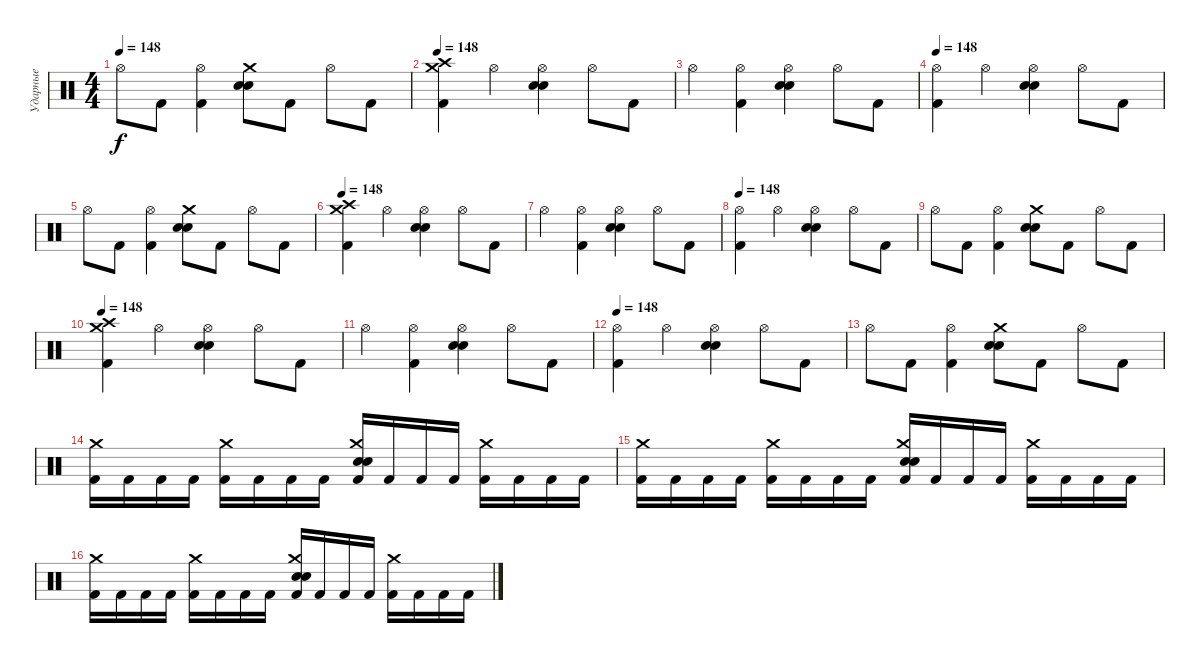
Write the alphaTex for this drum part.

\track ("Ударные" "Ударные") {instrument percussion}
\staff {score}
\articulation defaults
\ts (4 4)
\tempo 148
\clef neutral
\ks c "Hi-Hat (open)".8{dy f} "Kick (hit) 2".8
("Hi-Hat (open)" "Kick (hit) 2").4 ("Crash medium (hit)" "Snare (hit) 2" "Electric Snare (hit)").8 "Kick (hit) 2".8 "Hi-Hat (open)".8 "Kick (hit) 2".8 |
\tempo 148
("Crash high (hit)" "Crash medium (hit)" "Kick (hit) 2").4 "Hi-Hat (open)".4 ("Hi-Hat (open)" "Snare (hit) 2" "Electric Snare (hit)").4 "Hi-Hat (open)".8 "Kick (hit) 2".8 |
"Hi-Hat (open)".4 ("Hi-Hat (open)" "Kick (hit) 2").4 ("Hi-Hat (open)" "Snare (hit) 2" "Electric Snare (hit)").4 "Hi-Hat (open)".8 "Kick (hit) 2".8 |
\tempo 148
("Hi-Hat (open)" "Kick (hit) 2").4 "Hi-Hat (open)".4 ("Hi-Hat (open)" "Snare (hit) 2" "Electric Snare (hit)").4 "Hi-Hat (open)".8 "Kick (hit) 2".8 |
"Hi-Hat (open)".8 "Kick (hit) 2".8 ("Hi-Hat (open)" "Kick (hit) 2").4 ("Crash medium (hit)" "Snare (hit) 2" "Electric Snare (hit)").8 "Kick (hit) 2".8 "Hi-Hat (open)".8 "Kick (hit) 2".8 |
\tempo 148
("Crash high (hit)" "Crash medium (hit)" "Kick (hit) 2").4 "Hi-Hat (open)".4 ("Hi-Hat (open)" "Snare (hit) 2" "Electric Snare (hit)").4 "Hi-Hat (open)".8 "Kick (hit) 2".8 |
"Hi-Hat (open)".4 ("Hi-Hat (open)" "Kick (hit) 2").4 ("Hi-Hat (open)" "Snare (hit) 2" "Electric Snare (hit)").4 "Hi-Hat (open)".8 "Kick (hit) 2".8 |
\tempo 148
("Hi-Hat (open)" "Kick (hit) 2").4 "Hi-Hat (open)".4 ("Hi-Hat (open)" "Snare (hit) 2" "Electric Snare (hit)").4 "Hi-Hat (open)".8 "Kick (hit) 2".8 |
"Hi-Hat (open)".8 "Kick (hit) 2".8 ("Hi-Hat (open)" "Kick (hit) 2").4 ("Crash medium (hit)" "Snare (hit) 2" "Electric Snare (hit)").8 "Kick (hit) 2".8 "Hi-Hat (open)".8 "Kick (hit) 2".8 |
\tempo 148
("Crash high (hit)" "Crash medium (hit)" "Kick (hit) 2").4 "Hi-Hat (open)".4 ("Hi-Hat (open)" "Snare (hit) 2" "Electric Snare (hit)").4 "Hi-Hat (open)".8 "Kick (hit) 2".8 |
"Hi-Hat (open)".4 ("Hi-Hat (open)" "Kick (hit) 2").4 ("Hi-Hat (open)" "Snare (hit) 2" "Electric Snare (hit)").4 "Hi-Hat (open)".8 "Kick (hit) 2".8 |
\tempo 148
("Hi-Hat (open)" "Kick (hit) 2").4 "Hi-Hat (open)".4 ("Hi-Hat (open)" "Snare (hit) 2" "Electric Snare (hit)").4 "Hi-Hat (open)".8 "Kick (hit) 2".8 |
"Hi-Hat (open)".8 "Kick (hit) 2".8 ("Hi-Hat (open)" "Kick (hit) 2").4 ("Crash medium (hit)" "Snare (hit) 2" "Electric Snare (hit)").8 "Kick (hit) 2".8 "Hi-Hat (open)".8 "Kick (hit) 2".8 |
("Crash medium (hit)" "Kick (hit) 2").16 "Kick (hit) 2".16 "Kick (hit) 2".16 "Kick (hit) 2".16 ("Crash medium (hit)" "Kick (hit) 2").16 "Kick (hit) 2".16 "Kick (hit) 2".16 "Kick (hit) 2".16 ("Crash medium (hit)" "Electric Snare (hit)" "Snare (hit) 2" "Kick (hit) 2").16 "Kick (hit) 2".16 "Kick (hit) 2".16 "Kick (hit) 2".16 ("Crash medium (hit)" "Kick (hit) 2").16 "Kick (hit) 2".16 "Kick (hit) 2".16 "Kick (hit) 2".16 |
("Crash medium (hit)" "Kick (hit) 2").16 "Kick (hit) 2".16 "Kick (hit) 2".16 "Kick (hit) 2".16 ("Crash medium (hit)" "Kick (hit) 2").16 "Kick (hit) 2".16 "Kick (hit) 2".16 "Kick (hit) 2".16 ("Crash medium (hit)" "Electric Snare (hit)" "Snare (hit) 2" "Kick (hit) 2").16 "Kick (hit) 2".16 "Kick (hit) 2".16 "Kick (hit) 2".16 ("Crash medium (hit)" "Kick (hit) 2").16 "Kick (hit) 2".16 "Kick (hit) 2".16 "Kick (hit) 2".16 |
("Crash medium (hit)" "Kick (hit) 2").16 "Kick (hit) 2".16 "Kick (hit) 2".16 "Kick (hit) 2".16 ("Crash medium (hit)" "Kick (hit) 2").16 "Kick (hit) 2".16 "Kick (hit) 2".16 "Kick (hit) 2".16 ("Crash medium (hit)" "Electric Snare (hit)" "Snare (hit) 2" "Kick (hit) 2").16 "Kick (hit) 2".16 "Kick (hit) 2".16 "Kick (hit) 2".16 ("Crash medium (hit)" "Kick (hit) 2").16 "Kick (hit) 2".16 "Kick (hit) 2".16 "Kick (hit) 2".16
